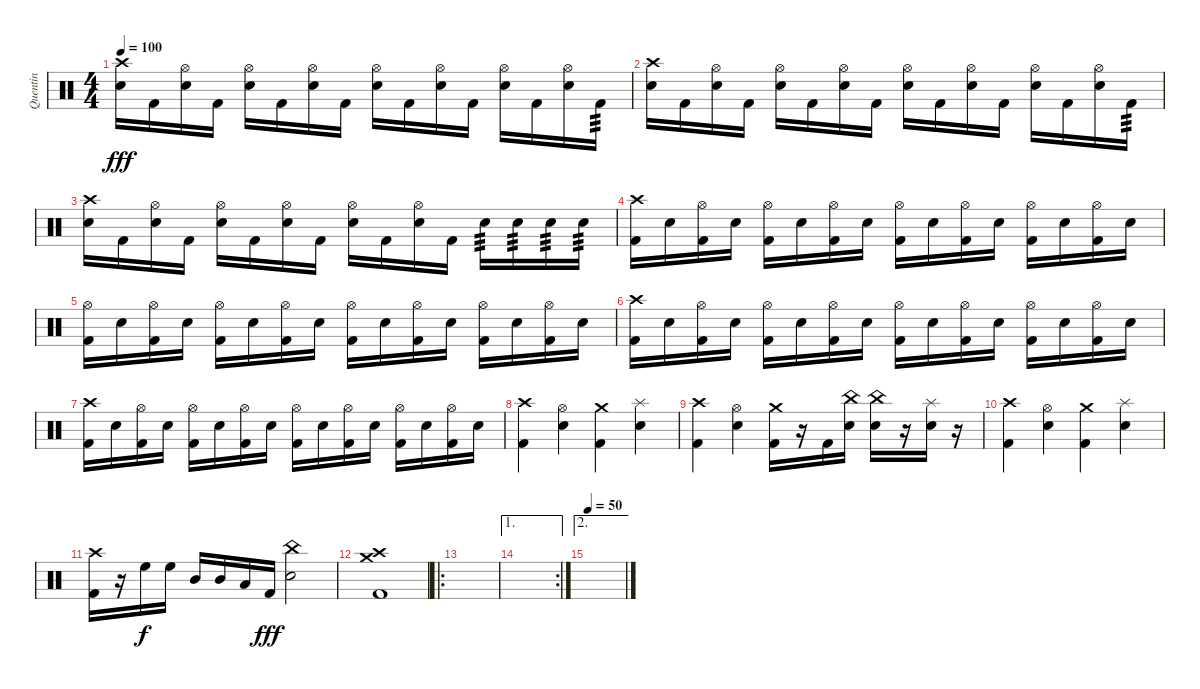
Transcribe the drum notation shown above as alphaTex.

\track ("Quentin" "Quentin") {instrument percussion}
\staff {score}
\articulation defaults
\ts (4 4)
\tempo 100
\clef neutral
\ks c
("Crash high (hit)" "Electric Snare (hit)").16{dy fff} "Kick (hit) 2".16 ("Hi-Hat (open)" "Electric Snare (hit)").16 "Kick (hit) 2".16 ("Hi-Hat (open)" "Electric Snare (hit)").16 "Kick (hit) 2".16 ("Hi-Hat (open)" "Electric Snare (hit)").16 "Kick (hit) 2".16 ("Hi-Hat (open)" "Electric Snare (hit)").16 "Kick (hit) 2".16 ("Hi-Hat (open)" "Electric Snare (hit)").16 "Kick (hit) 2".16 ("Hi-Hat (open)" "Electric Snare (hit)").16 "Kick (hit) 2".16 ("Hi-Hat (open)" "Electric Snare (hit)").16 "Kick (hit) 2".16{tp 3} |
("Crash high (hit)" "Electric Snare (hit)").16 "Kick (hit) 2".16 ("Hi-Hat (open)" "Electric Snare (hit)").16 "Kick (hit) 2".16 ("Hi-Hat (open)" "Electric Snare (hit)").16 "Kick (hit) 2".16 ("Hi-Hat (open)" "Electric Snare (hit)").16 "Kick (hit) 2".16 ("Hi-Hat (open)" "Electric Snare (hit)").16 "Kick (hit) 2".16 ("Hi-Hat (open)" "Electric Snare (hit)").16 "Kick (hit) 2".16 ("Hi-Hat (open)" "Electric Snare (hit)").16 "Kick (hit) 2".16 ("Hi-Hat (open)" "Electric Snare (hit)").16 "Kick (hit) 2".16{tp 3} |
("Crash high (hit)" "Electric Snare (hit)").16 "Kick (hit) 2".16 ("Hi-Hat (open)" "Electric Snare (hit)").16 "Kick (hit) 2".16 ("Hi-Hat (open)" "Electric Snare (hit)").16 "Kick (hit) 2".16 ("Hi-Hat (open)" "Electric Snare (hit)").16 "Kick (hit) 2".16 ("Hi-Hat (open)" "Electric Snare (hit)").16 "Kick (hit) 2".16 ("Hi-Hat (open)" "Electric Snare (hit)").16 "Kick (hit) 2".16 "Electric Snare (hit)".16{tp 3} "Electric Snare (hit)".16{tp 3} "Electric Snare (hit)".16{tp 3} "Electric Snare (hit)".16{tp 3} |
("Crash high (hit)" "Kick (hit) 2").16 "Electric Snare (hit)".16 ("Hi-Hat (open)" "Kick (hit) 2").16 "Electric Snare (hit)".16 ("Hi-Hat (open)" "Kick (hit) 2").16 "Electric Snare (hit)".16 ("Hi-Hat (open)" "Kick (hit) 2").16 "Electric Snare (hit)".16 ("Hi-Hat (open)" "Kick (hit) 2").16 "Electric Snare (hit)".16 ("Hi-Hat (open)" "Kick (hit) 2").16 "Electric Snare (hit)".16 ("Hi-Hat (open)" "Kick (hit) 2").16 "Electric Snare (hit)".16 ("Hi-Hat (open)" "Kick (hit) 2").16 "Electric Snare (hit)".16 |
("Hi-Hat (open)" "Kick (hit) 2").16 "Electric Snare (hit)".16 ("Hi-Hat (open)" "Kick (hit) 2").16 "Electric Snare (hit)".16 ("Hi-Hat (open)" "Kick (hit) 2").16 "Electric Snare (hit)".16 ("Hi-Hat (open)" "Kick (hit) 2").16 "Electric Snare (hit)".16 ("Hi-Hat (open)" "Kick (hit) 2").16 "Electric Snare (hit)".16 ("Hi-Hat (open)" "Kick (hit) 2").16 "Electric Snare (hit)".16 ("Hi-Hat (open)" "Kick (hit) 2").16 "Electric Snare (hit)".16 ("Hi-Hat (open)" "Kick (hit) 2").16 "Electric Snare (hit)".16 |
("Crash high (hit)" "Kick (hit) 2").16 "Electric Snare (hit)".16 ("Hi-Hat (open)" "Kick (hit) 2").16 "Electric Snare (hit)".16 ("Hi-Hat (open)" "Kick (hit) 2").16 "Electric Snare (hit)".16 ("Hi-Hat (open)" "Kick (hit) 2").16 "Electric Snare (hit)".16 ("Hi-Hat (open)" "Kick (hit) 2").16 "Electric Snare (hit)".16 ("Hi-Hat (open)" "Kick (hit) 2").16 "Electric Snare (hit)".16 ("Hi-Hat (open)" "Kick (hit) 2").16 "Electric Snare (hit)".16 ("Hi-Hat (open)" "Kick (hit) 2").16 "Electric Snare (hit)".16 |
("Crash high (hit)" "Kick (hit) 2").16 "Electric Snare (hit)".16 ("Hi-Hat (open)" "Kick (hit) 2").16 "Electric Snare (hit)".16 ("Hi-Hat (open)" "Kick (hit) 2").16 "Electric Snare (hit)".16 ("Hi-Hat (open)" "Kick (hit) 2").16 "Electric Snare (hit)".16 ("Hi-Hat (open)" "Kick (hit) 2").16 "Electric Snare (hit)".16 ("Hi-Hat (open)" "Kick (hit) 2").16 "Electric Snare (hit)".16 ("Hi-Hat (open)" "Kick (hit) 2").16 "Electric Snare (hit)".16 ("Hi-Hat (open)" "Kick (hit) 2").16 "Electric Snare (hit)".16 |
("Crash high (hit)" "Kick (hit) 2").4 ("Hi-Hat (open)" "Electric Snare (hit)").4 ("Crash medium (hit)" "Kick (hit) 2").4 ("Splash (hit)" "Electric Snare (hit)").4 |
("Crash high (hit)" "Kick (hit) 2").4 ("Hi-Hat (open)" "Electric Snare (hit)").4 ("Crash medium (hit)" "Kick (hit) 2").16 r.16 "Kick (hit) 2".16 ("China (hit)" "Electric Snare (hit)").16 ("China (hit)" "Electric Snare (hit)").16 r.16 ("Splash (hit)" "Electric Snare (hit)").16 r.16 |
("Crash high (hit)" "Kick (hit) 2").4 ("Hi-Hat (open)" "Electric Snare (hit)").4 ("Crash medium (hit)" "Kick (hit) 2").4 ("Splash (hit)" "Electric Snare (hit)").4 |
("Crash high (hit)" "Kick (hit) 2").16 r.16 "High Floor Tom (hit)".16{dy f} "High Floor Tom (hit)".16 "Mid Tom (hit)".16 "Mid Tom (hit)".16 "Low Tom (hit)".16 "Kick (hit) 2".16{dy fff} ("China (hit)" "Electric Snare (hit)").2 |
("Crash medium (hit)" "Crash high (hit)" "Kick (hit) 2").1 |
\ro
|
\ae 1
\rc 2
|
\ae 2
\tempo 50
